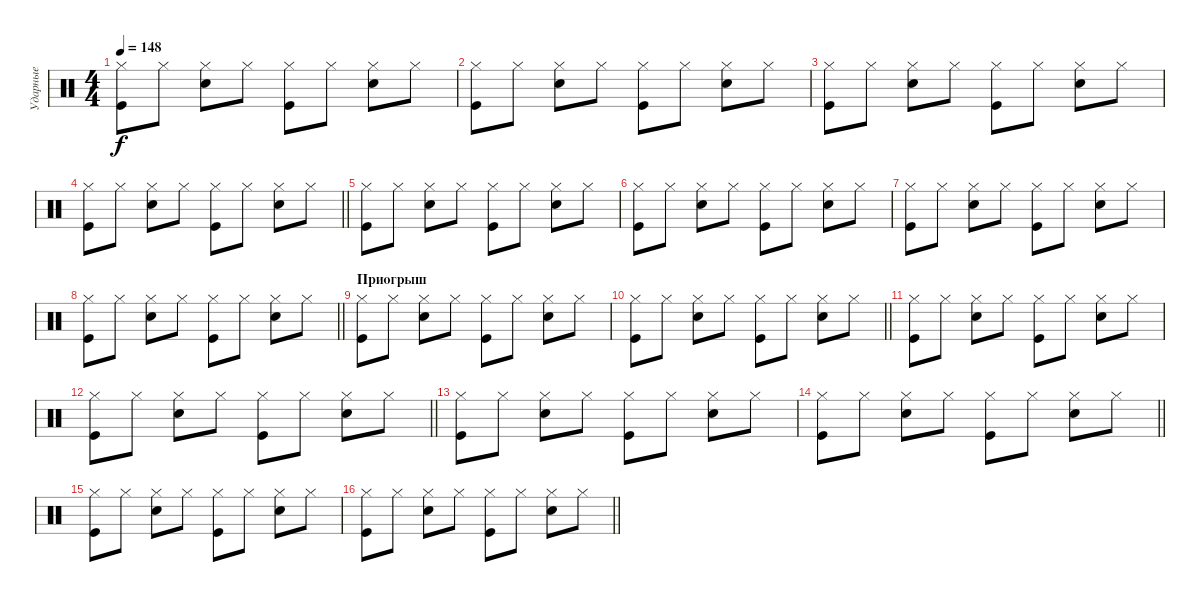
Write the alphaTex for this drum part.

\track ("Ударные" "Ударные") {instrument percussion}
\staff {score}
\articulation defaults
\ts (4 4)
\tempo 148
\clef neutral
\ks c
("Hi-Hat (closed)" "Kick (hit)").8{dy f} "Hi-Hat (closed)".8 ("Hi-Hat (closed)" "Snare (hit) 2").8 "Hi-Hat (closed)".8 ("Hi-Hat (closed)" "Kick (hit)").8 "Hi-Hat (closed)".8 ("Hi-Hat (closed)" "Snare (hit) 2").8 "Hi-Hat (closed)".8 |
("Hi-Hat (closed)" "Kick (hit)").8 "Hi-Hat (closed)".8 ("Hi-Hat (closed)" "Snare (hit) 2").8 "Hi-Hat (closed)".8 ("Hi-Hat (closed)" "Kick (hit)").8 "Hi-Hat (closed)".8 ("Hi-Hat (closed)" "Snare (hit) 2").8 "Hi-Hat (closed)".8 |
("Hi-Hat (closed)" "Kick (hit)").8 "Hi-Hat (closed)".8 ("Hi-Hat (closed)" "Snare (hit) 2").8 "Hi-Hat (closed)".8 ("Hi-Hat (closed)" "Kick (hit)").8 "Hi-Hat (closed)".8 ("Hi-Hat (closed)" "Snare (hit) 2").8 "Hi-Hat (closed)".8 |
\barLineRight lightlight
("Hi-Hat (closed)" "Kick (hit)").8 "Hi-Hat (closed)".8 ("Hi-Hat (closed)" "Snare (hit) 2").8 "Hi-Hat (closed)".8 ("Hi-Hat (closed)" "Kick (hit)").8 "Hi-Hat (closed)".8 ("Hi-Hat (closed)" "Snare (hit) 2").8 "Hi-Hat (closed)".8 |
("Hi-Hat (closed)" "Kick (hit)").8 "Hi-Hat (closed)".8 ("Hi-Hat (closed)" "Snare (hit) 2").8 "Hi-Hat (closed)".8 ("Hi-Hat (closed)" "Kick (hit)").8 "Hi-Hat (closed)".8 ("Hi-Hat (closed)" "Snare (hit) 2").8 "Hi-Hat (closed)".8 |
("Hi-Hat (closed)" "Kick (hit)").8 "Hi-Hat (closed)".8 ("Hi-Hat (closed)" "Snare (hit) 2").8 "Hi-Hat (closed)".8 ("Hi-Hat (closed)" "Kick (hit)").8 "Hi-Hat (closed)".8 ("Hi-Hat (closed)" "Snare (hit) 2").8 "Hi-Hat (closed)".8 |
("Hi-Hat (closed)" "Kick (hit)").8 "Hi-Hat (closed)".8 ("Hi-Hat (closed)" "Snare (hit) 2").8 "Hi-Hat (closed)".8 ("Hi-Hat (closed)" "Kick (hit)").8 "Hi-Hat (closed)".8 ("Hi-Hat (closed)" "Snare (hit) 2").8 "Hi-Hat (closed)".8 |
\barLineRight lightlight
("Hi-Hat (closed)" "Kick (hit)").8 "Hi-Hat (closed)".8 ("Hi-Hat (closed)" "Snare (hit) 2").8 "Hi-Hat (closed)".8 ("Hi-Hat (closed)" "Kick (hit)").8 "Hi-Hat (closed)".8 ("Hi-Hat (closed)" "Snare (hit) 2").8 "Hi-Hat (closed)".8 |
\section ("" "Приогрыш")
("Hi-Hat (closed)" "Kick (hit)").8 "Hi-Hat (closed)".8 ("Hi-Hat (closed)" "Snare (hit) 2").8 "Hi-Hat (closed)".8 ("Hi-Hat (closed)" "Kick (hit)").8 "Hi-Hat (closed)".8 ("Hi-Hat (closed)" "Snare (hit) 2").8 "Hi-Hat (closed)".8 |
\barLineRight lightlight
("Hi-Hat (closed)" "Kick (hit)").8 "Hi-Hat (closed)".8 ("Hi-Hat (closed)" "Snare (hit) 2").8 "Hi-Hat (closed)".8 ("Hi-Hat (closed)" "Kick (hit)").8 "Hi-Hat (closed)".8 ("Hi-Hat (closed)" "Snare (hit) 2").8 "Hi-Hat (closed)".8 |
("Hi-Hat (closed)" "Kick (hit)").8 "Hi-Hat (closed)".8 ("Hi-Hat (closed)" "Snare (hit) 2").8 "Hi-Hat (closed)".8 ("Hi-Hat (closed)" "Kick (hit)").8 "Hi-Hat (closed)".8 ("Hi-Hat (closed)" "Snare (hit) 2").8 "Hi-Hat (closed)".8 |
\barLineRight lightlight
("Hi-Hat (closed)" "Kick (hit)").8 "Hi-Hat (closed)".8 ("Hi-Hat (closed)" "Snare (hit) 2").8 "Hi-Hat (closed)".8 ("Hi-Hat (closed)" "Kick (hit)").8 "Hi-Hat (closed)".8 ("Hi-Hat (closed)" "Snare (hit) 2").8 "Hi-Hat (closed)".8 |
("Hi-Hat (closed)" "Kick (hit)").8 "Hi-Hat (closed)".8 ("Hi-Hat (closed)" "Snare (hit) 2").8 "Hi-Hat (closed)".8 ("Hi-Hat (closed)" "Kick (hit)").8 "Hi-Hat (closed)".8 ("Hi-Hat (closed)" "Snare (hit) 2").8 "Hi-Hat (closed)".8 |
\barLineRight lightlight
("Hi-Hat (closed)" "Kick (hit)").8 "Hi-Hat (closed)".8 ("Hi-Hat (closed)" "Snare (hit) 2").8 "Hi-Hat (closed)".8 ("Hi-Hat (closed)" "Kick (hit)").8 "Hi-Hat (closed)".8 ("Hi-Hat (closed)" "Snare (hit) 2").8 "Hi-Hat (closed)".8 |
("Hi-Hat (closed)" "Kick (hit)").8 "Hi-Hat (closed)".8 ("Hi-Hat (closed)" "Snare (hit) 2").8 "Hi-Hat (closed)".8 ("Hi-Hat (closed)" "Kick (hit)").8 "Hi-Hat (closed)".8 ("Hi-Hat (closed)" "Snare (hit) 2").8 "Hi-Hat (closed)".8 |
\barLineRight lightlight
("Hi-Hat (closed)" "Kick (hit)").8 "Hi-Hat (closed)".8 ("Hi-Hat (closed)" "Snare (hit) 2").8 "Hi-Hat (closed)".8 ("Hi-Hat (closed)" "Kick (hit)").8 "Hi-Hat (closed)".8 ("Hi-Hat (closed)" "Snare (hit) 2").8 "Hi-Hat (closed)".8
